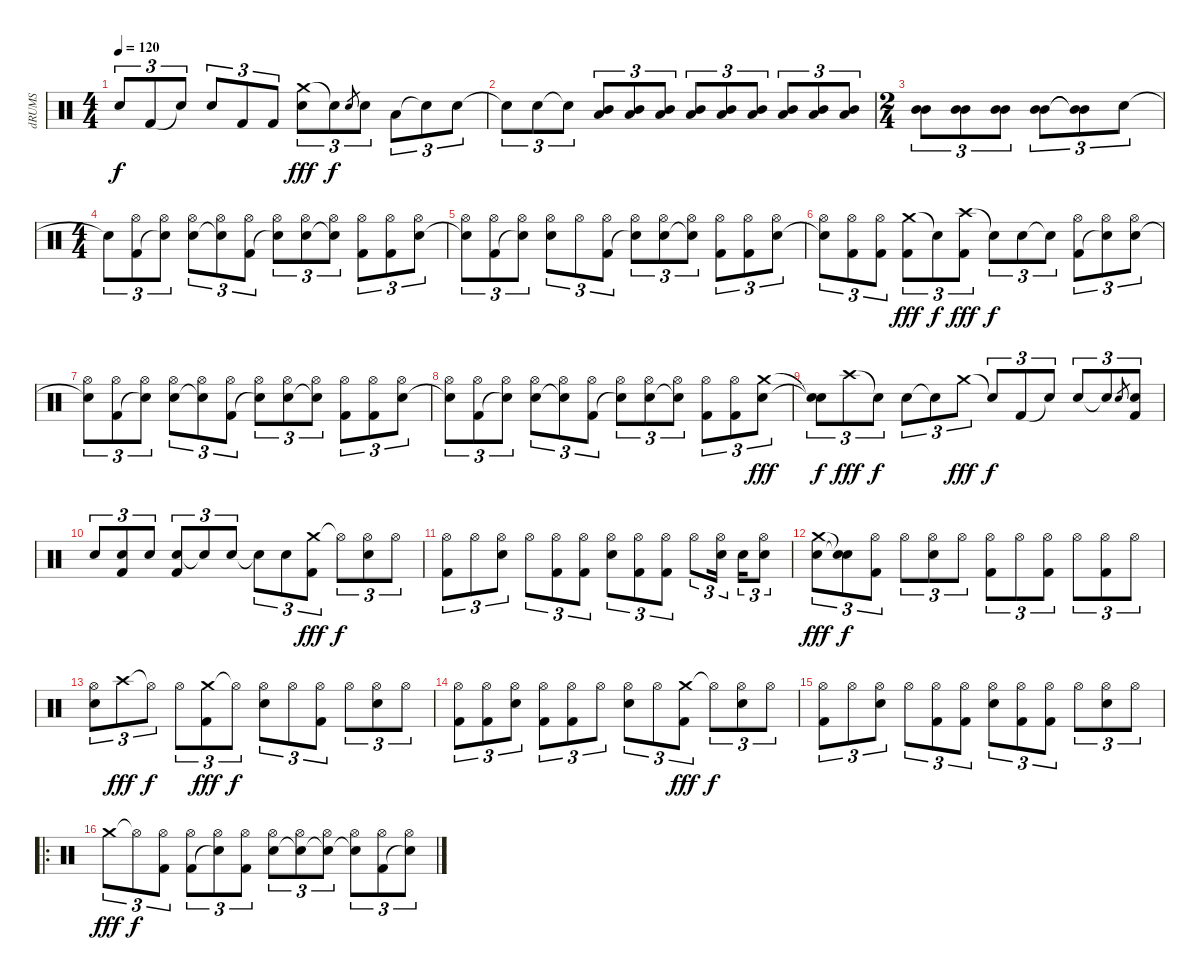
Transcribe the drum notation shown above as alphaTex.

\track ("dRUMS" "dRUMS") {instrument percussion}
\staff {score}
\articulation defaults
\ts (4 4)
\tempo 120
\clef neutral
\ks c "Snare (hit)"{t}.8{tu (3 2) dy f} "Kick (hit) 2".8{tu (3 2)} "Snare (hit)"{t}.8{tu (3 2)} "Electric Snare (hit)".8{tu (3 2)} "Kick (hit) 2".8{tu (3 2)} "Kick (hit) 2".8{tu (3 2)}
("Crash medium (hit)" "Snare (hit)"{t}).8{tu (3 2) dy fff} "Snare (hit)"{t}.8{tu (3 2) dy f} "Electric Snare (hit)".8{gr} "Electric Snare (hit)".8{tu (3 2)} "Low Tom (hit)".8{tu (3 2)} "Snare (hit)"{t}.8{tu (3 2)} "Electric Snare (hit)".8{tu (3 2)} |
"Snare (hit)"{t}.8{tu (3 2)} "Electric Snare (hit)".8{tu (3 2)} "Snare (hit)"{t}.8{tu (3 2)} ("Low Tom (hit)" "Mid Tom (hit)").8{tu (3 2)} ("Low Tom (hit)" "Mid Tom (hit)").8{tu (3 2)} ("Low Tom (hit)" "Mid Tom (hit)").8{tu (3 2)} ("Low Tom (hit)" "Mid Tom (hit)").8{tu (3 2)} ("Low Tom (hit)" "Mid Tom (hit)").8{tu (3 2)} ("Low Tom (hit)" "Mid Tom (hit)").8{tu (3 2)} ("Low Tom (hit)" "Mid Tom (hit)").8{tu (3 2)} ("Low Tom (hit)" "Mid Tom (hit)").8{tu (3 2)} ("Low Tom (hit)" "Mid Tom (hit)").8{tu (3 2)} |
\ts (2 4)
("Mid Tom (hit)" "Mid Tom (hit)").8{tu (3 2)} ("Mid Tom (hit)" "Mid Tom (hit)").8{tu (3 2)} ("Mid Tom (hit)" "Mid Tom (hit)").8{tu (3 2)} ("Mid Tom (hit)" "Mid Tom (hit)").8{tu (3 2)} ("Mid Tom (hit)"{t} "Mid Tom (hit)"{t}).8{tu (3 2)} "Electric Snare (hit)".8{tu (3 2)} |
\ts (4 4)
"Snare (hit)"{t}.8{tu (3 2)} ("Hi-Hat (open)" "Kick (hit) 2").8{tu (3 2)} ("Hi-Hat (open)" "Snare (hit)"{t}).8{tu (3 2)} ("Hi-Hat (open)" "Electric Snare (hit)").8{tu (3 2)} ("Hi-Hat (open)" "Snare (hit)"{t}).8{tu (3 2)} ("Hi-Hat (open)" "Kick (hit) 2").8{tu (3 2)} ("Hi-Hat (open)" "Snare (hit)"{t}).8{tu (3 2)} ("Hi-Hat (open)" "Electric Snare (hit)").8{tu (3 2)} ("Hi-Hat (open)" "Snare (hit)"{t}).8{tu (3 2)} ("Hi-Hat (open)" "Kick (hit) 2").8{tu (3 2)} ("Hi-Hat (open)" "Kick (hit) 2").8{tu (3 2)} ("Hi-Hat (open)" "Electric Snare (hit)").8{tu (3 2)} |
("Hi-Hat (open)" "Snare (hit)"{t}).8{tu (3 2)} ("Hi-Hat (open)" "Kick (hit) 2").8{tu (3 2)} ("Hi-Hat (open)" "Snare (hit)"{t}).8{tu (3 2)} ("Hi-Hat (open)" "Electric Snare (hit)").8{tu (3 2)} "Hi-Hat (open)".8{tu (3 2)} ("Hi-Hat (open)" "Kick (hit) 2").8{tu (3 2)} ("Hi-Hat (open)" "Snare (hit)"{t}).8{tu (3 2)} ("Hi-Hat (open)" "Electric Snare (hit)").8{tu (3 2)} ("Hi-Hat (open)" "Snare (hit)"{t}).8{tu (3 2)} ("Hi-Hat (open)" "Kick (hit) 2").8{tu (3 2)} ("Hi-Hat (open)" "Kick (hit) 2").8{tu (3 2)} ("Hi-Hat (open)" "Electric Snare (hit)").8{tu (3 2)} |
("Hi-Hat (open)" "Snare (hit)"{t}).8{tu (3 2)} ("Hi-Hat (open)" "Kick (hit) 2").8{tu (3 2)} ("Hi-Hat (open)" "Kick (hit) 2").8{tu (3 2)} ("Crash medium (hit)" "Kick (hit) 2").8{tu (3 2) dy fff} "Snare (hit)"{t}.8{tu (3 2) dy f} ("Crash high (hit)" "Kick (hit) 2").8{tu (3 2) dy fff} "Snare (hit)"{t}.8{tu (3 2) dy f} "Electric Snare (hit)".8{tu (3 2)} "Snare (hit)"{t}.8{tu (3 2)} ("Hi-Hat (open)" "Kick (hit) 2").8{tu (3 2)} ("Hi-Hat (open)" "Snare (hit)"{t}).8{tu (3 2)} ("Hi-Hat (open)" "Electric Snare (hit)").8{tu (3 2)} |
("Hi-Hat (open)" "Snare (hit)"{t}).8{tu (3 2)} ("Hi-Hat (open)" "Kick (hit) 2").8{tu (3 2)} ("Hi-Hat (open)" "Snare (hit)"{t}).8{tu (3 2)} ("Hi-Hat (open)" "Electric Snare (hit)").8{tu (3 2)} ("Hi-Hat (open)" "Snare (hit)"{t}).8{tu (3 2)} ("Hi-Hat (open)" "Kick (hit) 2").8{tu (3 2)} ("Hi-Hat (open)" "Snare (hit)"{t}).8{tu (3 2)} ("Hi-Hat (open)" "Electric Snare (hit)").8{tu (3 2)} ("Hi-Hat (open)" "Snare (hit)"{t}).8{tu (3 2)} ("Hi-Hat (open)" "Kick (hit) 2").8{tu (3 2)} ("Hi-Hat (open)" "Kick (hit) 2").8{tu (3 2)} ("Hi-Hat (open)" "Electric Snare (hit)").8{tu (3 2)} |
("Hi-Hat (open)" "Snare (hit)"{t}).8{tu (3 2)} ("Hi-Hat (open)" "Kick (hit) 2").8{tu (3 2)} ("Hi-Hat (open)" "Snare (hit)"{t}).8{tu (3 2)} ("Hi-Hat (open)" "Electric Snare (hit)").8{tu (3 2)} ("Hi-Hat (open)" "Snare (hit)"{t}).8{tu (3 2)} ("Hi-Hat (open)" "Kick (hit) 2").8{tu (3 2)} ("Hi-Hat (open)" "Snare (hit)"{t}).8{tu (3 2)} ("Hi-Hat (open)" "Electric Snare (hit)").8{tu (3 2)} ("Hi-Hat (open)" "Snare (hit)"{t}).8{tu (3 2)} ("Hi-Hat (open)" "Kick (hit) 2").8{tu (3 2)} ("Hi-Hat (open)" "Kick (hit) 2").8{tu (3 2)} ("Crash medium (hit)" "Electric Snare (hit)").8{tu (3 2) dy fff} |
("Snare (hit)"{t} "Snare (hit)"{t}).8{tu (3 2) dy f} "Crash high (hit)".8{tu (3 2) dy fff} "Snare (hit)"{t}.8{tu (3 2) dy f} "Electric Snare (hit)".8{tu (3 2)} "Snare (hit)"{t}.8{tu (3 2)} "Crash medium (hit)".8{tu (3 2) dy fff} "Snare (hit)"{t}.8{tu (3 2) dy f} "Kick (hit) 2".8{tu (3 2)} "Snare (hit)"{t}.8{tu (3 2)} "Electric Snare (hit)".8{tu (3 2)} "Snare (hit)"{t}.8{tu (3 2)} "Electric Snare (hit)".8{gr} ("Electric Snare (hit)" "Kick (hit) 2").8{tu (3 2)} |
"Electric Snare (hit)".8{tu (3 2)} ("Electric Snare (hit)" "Kick (hit) 2").8{tu (3 2)} "Electric Snare (hit)".8{tu (3 2)} ("Electric Snare (hit)" "Kick (hit) 2").8{tu (3 2)} "Snare (hit)"{t}.8{tu (3 2)} "Electric Snare (hit)".8{tu (3 2)} "Snare (hit)"{t}.8{tu (3 2)} "Electric Snare (hit)".8{tu (3 2)} ("Crash medium (hit)" "Kick (hit) 2").8{tu (3 2) dy fff} "Hi-Hat (open)"{t}.8{tu (3 2) dy f} ("Hi-Hat (open)" "Electric Snare (hit)").8{tu (3 2)} "Hi-Hat (open)".8{tu (3 2)} |
("Hi-Hat (open)" "Kick (hit) 2").8{tu (3 2)} "Hi-Hat (open)".8{tu (3 2)} ("Hi-Hat (open)" "Electric Snare (hit)").8{tu (3 2)} "Hi-Hat (open)".8{tu (3 2)} ("Hi-Hat (open)" "Kick (hit) 2").8{tu (3 2)} ("Hi-Hat (open)" "Kick (hit) 2").8{tu (3 2)} ("Hi-Hat (open)" "Electric Snare (hit)").8{tu (3 2)} ("Hi-Hat (open)" "Kick (hit) 2").8{tu (3 2)} ("Hi-Hat (open)" "Kick (hit) 2").8{tu (3 2)} "Hi-Hat (open)".8{tu (3 2)} ("Hi-Hat (open)" "Electric Snare (hit)").16{tu (3 2)} "Electric Snare (hit)".16{tu (3 2)} ("Hi-Hat (open)" "Electric Snare (hit)").8{tu (3 2)} |
("Crash medium (hit)" "Electric Snare (hit)").8{tu (3 2) dy fff} ("Snare (hit)"{t} "Snare (hit)"{t}).8{tu (3 2) dy f} ("Hi-Hat (open)" "Kick (hit) 2").8{tu (3 2)} "Hi-Hat (open)".8{tu (3 2)} ("Hi-Hat (open)" "Electric Snare (hit)").8{tu (3 2)} "Hi-Hat (open)".8{tu (3 2)} ("Hi-Hat (open)" "Kick (hit) 2").8{tu (3 2)} "Hi-Hat (open)".8{tu (3 2)} ("Hi-Hat (open)" "Kick (hit) 2").8{tu (3 2)} "Hi-Hat (open)".8{tu (3 2)} ("Hi-Hat (open)" "Kick (hit) 2").8{tu (3 2)} "Hi-Hat (open)".8{tu (3 2)} |
("Hi-Hat (open)" "Electric Snare (hit)").8{tu (3 2)} "Crash high (hit)".8{tu (3 2) dy fff} "Hi-Hat (open)"{t}.8{tu (3 2) dy f} "Hi-Hat (open)".8{tu (3 2)} ("Crash medium (hit)" "Kick (hit) 2").8{tu (3 2) dy fff} "Hi-Hat (open)"{t}.8{tu (3 2) dy f} ("Hi-Hat (open)" "Electric Snare (hit)").8{tu (3 2)} "Hi-Hat (open)".8{tu (3 2)} ("Hi-Hat (open)" "Kick (hit) 2").8{tu (3 2)} "Hi-Hat (open)".8{tu (3 2)} ("Hi-Hat (open)" "Electric Snare (hit)").8{tu (3 2)} "Hi-Hat (open)".8{tu (3 2)} |
("Hi-Hat (open)" "Kick (hit) 2").8{tu (3 2)} ("Hi-Hat (open)" "Kick (hit) 2").8{tu (3 2)} ("Hi-Hat (open)" "Electric Snare (hit)").8{tu (3 2)} ("Hi-Hat (open)" "Kick (hit) 2").8{tu (3 2)} ("Hi-Hat (open)" "Kick (hit) 2").8{tu (3 2)} "Hi-Hat (open)".8{tu (3 2)} ("Hi-Hat (open)" "Electric Snare (hit)").8{tu (3 2)} "Hi-Hat (open)".8{tu (3 2)} ("Crash medium (hit)" "Kick (hit) 2").8{tu (3 2) dy fff} "Hi-Hat (open)"{t}.8{tu (3 2) dy f} ("Hi-Hat (open)" "Electric Snare (hit)").8{tu (3 2)} "Hi-Hat (open)".8{tu (3 2)} |
("Hi-Hat (open)" "Kick (hit) 2").8{tu (3 2)} "Hi-Hat (open)".8{tu (3 2)} ("Hi-Hat (open)" "Electric Snare (hit)").8{tu (3 2)} "Hi-Hat (open)".8{tu (3 2)} ("Hi-Hat (open)" "Kick (hit) 2").8{tu (3 2)} ("Hi-Hat (open)" "Kick (hit) 2").8{tu (3 2)} ("Hi-Hat (open)" "Electric Snare (hit)").8{tu (3 2)} ("Hi-Hat (open)" "Kick (hit) 2").8{tu (3 2)} ("Hi-Hat (open)" "Kick (hit) 2").8{tu (3 2)} "Hi-Hat (open)".8{tu (3 2)} ("Hi-Hat (open)" "Electric Snare (hit)").8{tu (3 2)} "Hi-Hat (open)".8{tu (3 2)} |
\ro "Crash medium (hit)".8{tu (3 2) dy fff} "Hi-Hat (open)"{t}.8{tu (3 2) dy f}
("Hi-Hat (open)" "Kick (hit) 2").8{tu (3 2)} ("Hi-Hat (open)" "Kick (hit) 2").8{tu (3 2)} ("Hi-Hat (open)" "Snare (hit)"{t}).8{tu (3 2)} ("Hi-Hat (open)" "Kick (hit) 2").8{tu (3 2)} ("Hi-Hat (open)" "Electric Snare (hit)").8{tu (3 2)} ("Hi-Hat (open)" "Snare (hit)"{t}).8{tu (3 2)} ("Hi-Hat (open)" "Snare (hit)"{t}).8{tu (3 2)} ("Hi-Hat (open)" "Snare (hit)"{t}).8{tu (3 2)} ("Hi-Hat (open)" "Kick (hit) 2").8{tu (3 2)} ("Hi-Hat (open)" "Snare (hit)"{t}).8{tu (3 2)}
